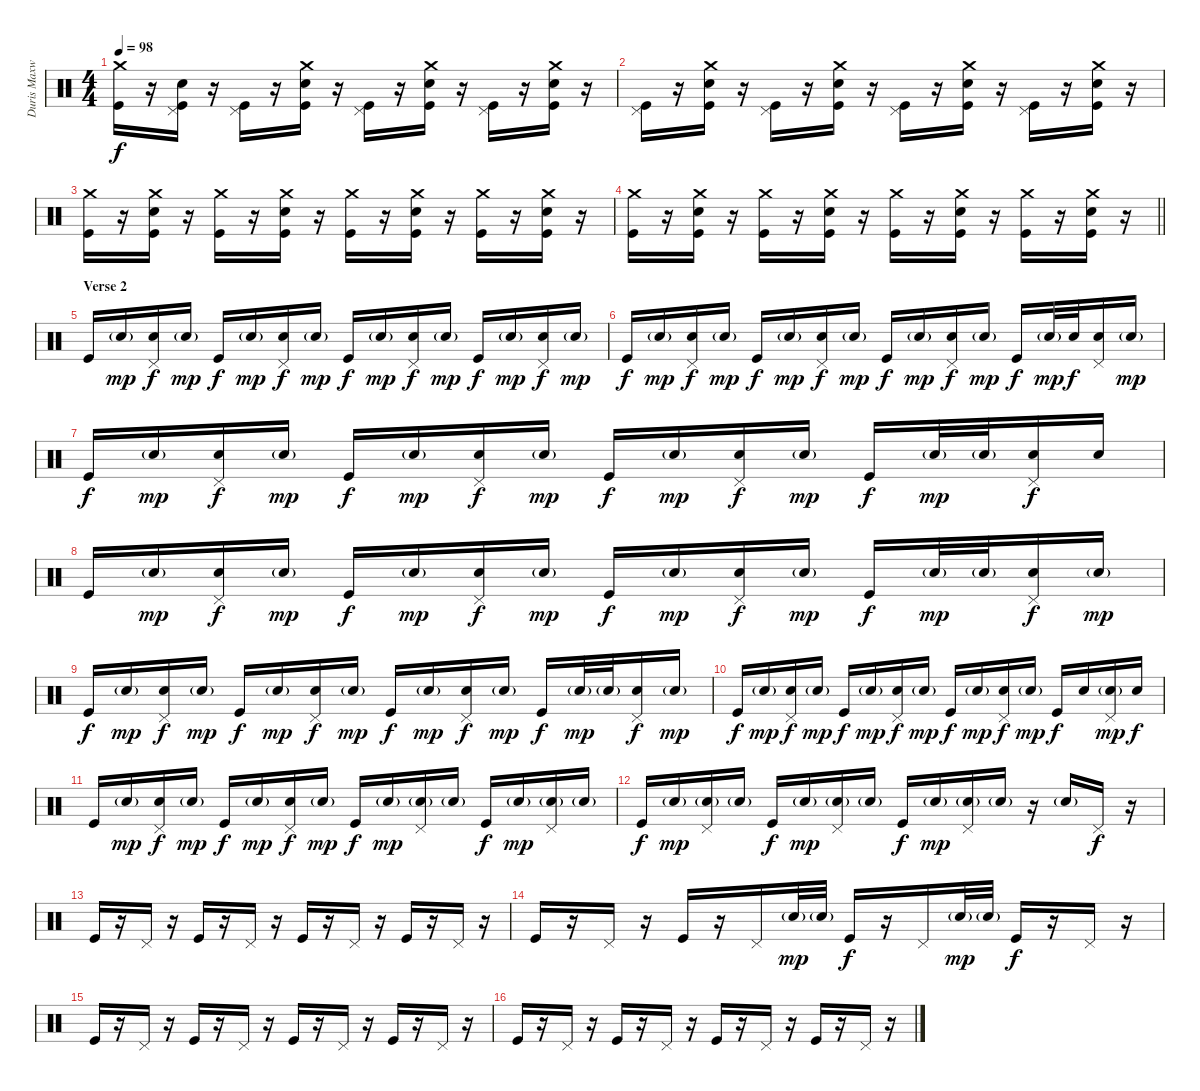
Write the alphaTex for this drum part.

\track ("Duris Maxwell" "Duris Maxw") {instrument percussion}
\staff {score}
\articulation defaults
\ts (4 4)
\tempo 98
\clef neutral
\ks c
("Crash medium (hit)" "Kick (hit)").16{dy f} r.16 ("Pedal Hi-Hat (hit)" "Snare (hit) 2" "Kick (hit)").16 r.16 ("Pedal Hi-Hat (hit)" "Kick (hit)").16 r.16 ("Crash medium (hit)" "Snare (hit) 2" "Kick (hit)").16 r.16 ("Pedal Hi-Hat (hit)" "Kick (hit)").16 r.16 ("Crash medium (hit)" "Snare (hit) 2" "Kick (hit)").16 r.16 ("Pedal Hi-Hat (hit)" "Kick (hit)").16 r.16 ("Crash medium (hit)" "Snare (hit) 2" "Kick (hit)").16 r.16 |
("Pedal Hi-Hat (hit)" "Kick (hit)").16 r.16 ("Crash medium (hit)" "Snare (hit) 2" "Kick (hit)").16 r.16 ("Pedal Hi-Hat (hit)" "Kick (hit)").16 r.16 ("Crash medium (hit)" "Snare (hit) 2" "Kick (hit)").16 r.16 ("Pedal Hi-Hat (hit)" "Kick (hit)").16 r.16 ("Crash medium (hit)" "Snare (hit) 2" "Kick (hit)").16 r.16 ("Pedal Hi-Hat (hit)" "Kick (hit)").16 r.16 ("Crash medium (hit)" "Snare (hit) 2" "Kick (hit)").16 r.16 |
("Crash medium (hit)" "Kick (hit)").16 r.16 ("Crash medium (hit)" "Snare (hit) 2" "Kick (hit)").16 r.16 ("Crash medium (hit)" "Kick (hit)").16 r.16 ("Crash medium (hit)" "Snare (hit) 2" "Kick (hit)").16 r.16 ("Crash medium (hit)" "Kick (hit)").16 r.16 ("Crash medium (hit)" "Snare (hit) 2" "Kick (hit)").16 r.16 ("Crash medium (hit)" "Kick (hit)").16 r.16 ("Crash medium (hit)" "Snare (hit) 2" "Kick (hit)").16 r.16 |
\barLineRight lightlight
("Crash medium (hit)" "Kick (hit)").16 r.16 ("Crash medium (hit)" "Snare (hit) 2" "Kick (hit)").16 r.16 ("Crash medium (hit)" "Kick (hit)").16 r.16 ("Crash medium (hit)" "Snare (hit) 2" "Kick (hit)").16 r.16 ("Crash medium (hit)" "Kick (hit)").16 r.16 ("Crash medium (hit)" "Snare (hit) 2" "Kick (hit)").16 r.16 ("Crash medium (hit)" "Kick (hit)").16 r.16 ("Crash medium (hit)" "Snare (hit) 2" "Kick (hit)").16 r.16 |
\section ("" "Verse 2")
"Kick (hit)".16 "Snare (hit) 2"{g}.16{dy mp} ("Pedal Hi-Hat (hit)" "Snare (hit) 2").16{dy f} "Snare (hit) 2"{g}.16{dy mp} "Kick (hit)".16{dy f} "Snare (hit) 2"{g}.16{dy mp} ("Pedal Hi-Hat (hit)" "Snare (hit) 2").16{dy f} "Snare (hit) 2"{g}.16{dy mp} "Kick (hit)".16{dy f} "Snare (hit) 2"{g}.16{dy mp} ("Pedal Hi-Hat (hit)" "Snare (hit) 2").16{dy f} "Snare (hit) 2"{g}.16{dy mp} "Kick (hit)".16{dy f} "Snare (hit) 2"{g}.16{dy mp} ("Pedal Hi-Hat (hit)" "Snare (hit) 2").16{dy f} "Snare (hit) 2"{g}.16{dy mp} |
"Kick (hit)".16{dy f} "Snare (hit) 2"{g}.16{dy mp} ("Pedal Hi-Hat (hit)" "Snare (hit) 2").16{dy f} "Snare (hit) 2"{g}.16{dy mp} "Kick (hit)".16{dy f} "Snare (hit) 2"{g}.16{dy mp} ("Pedal Hi-Hat (hit)" "Snare (hit) 2").16{dy f} "Snare (hit) 2"{g}.16{dy mp} "Kick (hit)".16{dy f} "Snare (hit) 2"{g}.16{dy mp} ("Pedal Hi-Hat (hit)" "Snare (hit) 2").16{dy f} "Snare (hit) 2"{g}.16{dy mp} "Kick (hit)".16{dy f} "Snare (hit) 2"{g}.32{dy mp} "Snare (hit) 2".32{dy f} ("Pedal Hi-Hat (hit)" "Snare (hit) 2").16 "Snare (hit) 2"{g}.16{dy mp} |
"Kick (hit)".16{dy f} "Snare (hit) 2"{g}.16{dy mp} ("Pedal Hi-Hat (hit)" "Snare (hit) 2").16{dy f} "Snare (hit) 2"{g}.16{dy mp} "Kick (hit)".16{dy f} "Snare (hit) 2"{g}.16{dy mp} ("Pedal Hi-Hat (hit)" "Snare (hit) 2").16{dy f} "Snare (hit) 2"{g}.16{dy mp} "Kick (hit)".16{dy f} "Snare (hit) 2"{g}.16{dy mp} ("Pedal Hi-Hat (hit)" "Snare (hit) 2").16{dy f} "Snare (hit) 2"{g}.16{dy mp} "Kick (hit)".16{dy f} "Snare (hit) 2"{g}.32{dy mp} "Snare (hit) 2"{g}.32 ("Pedal Hi-Hat (hit)" "Snare (hit) 2").16{dy f} "Snare (hit) 2".16 |
"Kick (hit)".16 "Snare (hit) 2"{g}.16{dy mp} ("Pedal Hi-Hat (hit)" "Snare (hit) 2").16{dy f} "Snare (hit) 2"{g}.16{dy mp} "Kick (hit)".16{dy f} "Snare (hit) 2"{g}.16{dy mp} ("Pedal Hi-Hat (hit)" "Snare (hit) 2").16{dy f} "Snare (hit) 2"{g}.16{dy mp} "Kick (hit)".16{dy f} "Snare (hit) 2"{g}.16{dy mp} ("Pedal Hi-Hat (hit)" "Snare (hit) 2").16{dy f} "Snare (hit) 2"{g}.16{dy mp} "Kick (hit)".16{dy f} "Snare (hit) 2"{g}.32{dy mp} "Snare (hit) 2"{g}.32 ("Pedal Hi-Hat (hit)" "Snare (hit) 2").16{dy f} "Snare (hit) 2"{g}.16{dy mp} |
"Kick (hit)".16{dy f} "Snare (hit) 2"{g}.16{dy mp} ("Pedal Hi-Hat (hit)" "Snare (hit) 2").16{dy f} "Snare (hit) 2"{g}.16{dy mp} "Kick (hit)".16{dy f} "Snare (hit) 2"{g}.16{dy mp} ("Pedal Hi-Hat (hit)" "Snare (hit) 2").16{dy f} "Snare (hit) 2"{g}.16{dy mp} "Kick (hit)".16{dy f} "Snare (hit) 2"{g}.16{dy mp} ("Pedal Hi-Hat (hit)" "Snare (hit) 2").16{dy f} "Snare (hit) 2"{g}.16{dy mp} "Kick (hit)".16{dy f} "Snare (hit) 2"{g}.32{dy mp} "Snare (hit) 2"{g}.32 ("Pedal Hi-Hat (hit)" "Snare (hit) 2").16{dy f} "Snare (hit) 2"{g}.16{dy mp} |
"Kick (hit)".16{dy f} "Snare (hit) 2"{g}.16{dy mp} ("Pedal Hi-Hat (hit)" "Snare (hit) 2").16{dy f} "Snare (hit) 2"{g}.16{dy mp} "Kick (hit)".16{dy f} "Snare (hit) 2"{g}.16{dy mp} ("Pedal Hi-Hat (hit)" "Snare (hit) 2").16{dy f} "Snare (hit) 2"{g}.16{dy mp} "Kick (hit)".16{dy f} "Snare (hit) 2"{g}.16{dy mp} ("Pedal Hi-Hat (hit)" "Snare (hit) 2").16{dy f} "Snare (hit) 2"{g}.16{dy mp} "Kick (hit)".16{dy f} "Snare (hit) 2".16 ("Pedal Hi-Hat (hit)" "Snare (hit) 2"{g}).16{dy mp} "Snare (hit) 2".16{dy f} |
"Kick (hit)".16 "Snare (hit) 2"{g}.16{dy mp} ("Pedal Hi-Hat (hit)" "Snare (hit) 2").16{dy f} "Snare (hit) 2"{g}.16{dy mp} "Kick (hit)".16{dy f} "Snare (hit) 2"{g}.16{dy mp} ("Pedal Hi-Hat (hit)" "Snare (hit) 2").16{dy f} "Snare (hit) 2"{g}.16{dy mp} "Kick (hit)".16{dy f} "Snare (hit) 2"{g}.16{dy mp} ("Pedal Hi-Hat (hit)" "Snare (hit) 2"{g}).16 "Snare (hit) 2"{g}.16 "Kick (hit)".16{dy f} "Snare (hit) 2"{g}.16{dy mp} ("Pedal Hi-Hat (hit)" "Snare (hit) 2"{g}).16 "Snare (hit) 2"{g}.16 |
"Kick (hit)".16{dy f} "Snare (hit) 2"{g}.16{dy mp} ("Pedal Hi-Hat (hit)" "Snare (hit) 2"{g}).16 "Snare (hit) 2"{g}.16 "Kick (hit)".16{dy f} "Snare (hit) 2"{g}.16{dy mp} ("Pedal Hi-Hat (hit)" "Snare (hit) 2"{g}).16 "Snare (hit) 2"{g}.16 "Kick (hit)".16{dy f} "Snare (hit) 2"{g}.16{dy mp} ("Pedal Hi-Hat (hit)" "Snare (hit) 2"{g}).16 "Snare (hit) 2"{g}.16 r.16 "Snare (hit) 2"{g}.16 "Pedal Hi-Hat (hit)".16{dy f} r.16 |
"Kick (hit)".16 r.16 "Pedal Hi-Hat (hit)".16 r.16 "Kick (hit)".16 r.16 "Pedal Hi-Hat (hit)".16 r.16 "Kick (hit)".16 r.16 "Pedal Hi-Hat (hit)".16 r.16 "Kick (hit)".16 r.16 "Pedal Hi-Hat (hit)".16 r.16 |
"Kick (hit)".16 r.16 "Pedal Hi-Hat (hit)".16 r.16 "Kick (hit)".16 r.16 "Pedal Hi-Hat (hit)".16 "Snare (hit) 2"{g}.32{dy mp} "Snare (hit) 2"{g}.32 "Kick (hit)".16{dy f} r.16 "Pedal Hi-Hat (hit)".16 "Snare (hit) 2"{g}.32{dy mp} "Snare (hit) 2"{g}.32 "Kick (hit)".16{dy f} r.16 "Pedal Hi-Hat (hit)".16 r.16 |
"Kick (hit)".16 r.16 "Pedal Hi-Hat (hit)".16 r.16 "Kick (hit)".16 r.16 "Pedal Hi-Hat (hit)".16 r.16 "Kick (hit)".16 r.16 "Pedal Hi-Hat (hit)".16 r.16 "Kick (hit)".16 r.16 "Pedal Hi-Hat (hit)".16 r.16 |
"Kick (hit)".16 r.16 "Pedal Hi-Hat (hit)".16 r.16 "Kick (hit)".16 r.16 "Pedal Hi-Hat (hit)".16 r.16 "Kick (hit)".16 r.16 "Pedal Hi-Hat (hit)".16 r.16 "Kick (hit)".16 r.16 "Pedal Hi-Hat (hit)".16 r.16
